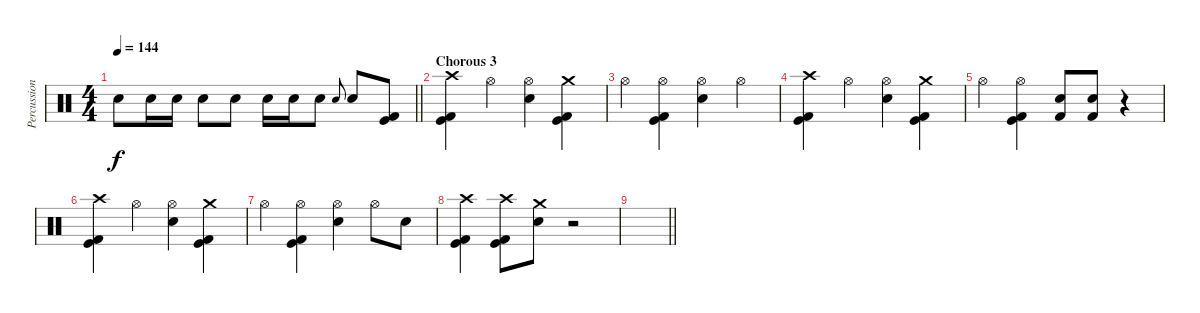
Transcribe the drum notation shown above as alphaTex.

\track ("Percussion" "Percussion") {instrument percussion}
\staff {score}
\articulation defaults
\ts (4 4)
\tempo 144
\clef neutral
\barLineRight lightlight
\ks c "Electric Snare (hit)".8{dy f} "Electric Snare (hit)".16 "Electric Snare (hit)".16 "Electric Snare (hit)".8 "Electric Snare (hit)".8 "Electric Snare (hit)".16 "Electric Snare (hit)".16 "Electric Snare (hit)".8 "Electric Snare (hit)".8{gr onbeat} "Electric Snare (hit)".8
("Kick (hit)" "Kick (hit) 2").8 |
\section ("" "Chorous 3")
("Crash high (hit)" "Kick (hit)" "Kick (hit) 2").4 "Hi-Hat (open)".4 ("Hi-Hat (open)" "Electric Snare (hit)").4 ("Crash medium (hit)" "Kick (hit)" "Kick (hit) 2").4 |
"Hi-Hat (open)".4 ("Hi-Hat (open)" "Kick (hit)" "Kick (hit) 2").4 ("Hi-Hat (open)" "Electric Snare (hit)").4 "Hi-Hat (open)".4 |
("Crash high (hit)" "Kick (hit)" "Kick (hit) 2").4 "Hi-Hat (open)".4 ("Hi-Hat (open)" "Electric Snare (hit)").4 ("Crash medium (hit)" "Kick (hit)" "Kick (hit) 2").4 |
"Hi-Hat (open)".4 ("Hi-Hat (open)" "Kick (hit)" "Kick (hit) 2").4 ("Electric Snare (hit)" "Kick (hit) 2").8 ("Electric Snare (hit)" "Kick (hit) 2").8 r.4 |
("Crash high (hit)" "Kick (hit)" "Kick (hit) 2").4 "Hi-Hat (open)".4 ("Hi-Hat (open)" "Electric Snare (hit)").4 ("Crash medium (hit)" "Kick (hit)" "Kick (hit) 2").4 |
"Hi-Hat (open)".4 ("Hi-Hat (open)" "Kick (hit)" "Kick (hit) 2").4 ("Hi-Hat (open)" "Electric Snare (hit)").4 "Hi-Hat (open)".8 "Electric Snare (hit)".8 |
("Crash high (hit)" "Kick (hit)" "Kick (hit) 2").4 ("Crash high (hit)" "Kick (hit)" "Kick (hit) 2").8 ("Crash medium (hit)" "Electric Snare (hit)").8 r.2 |
\barLineRight lightlight
